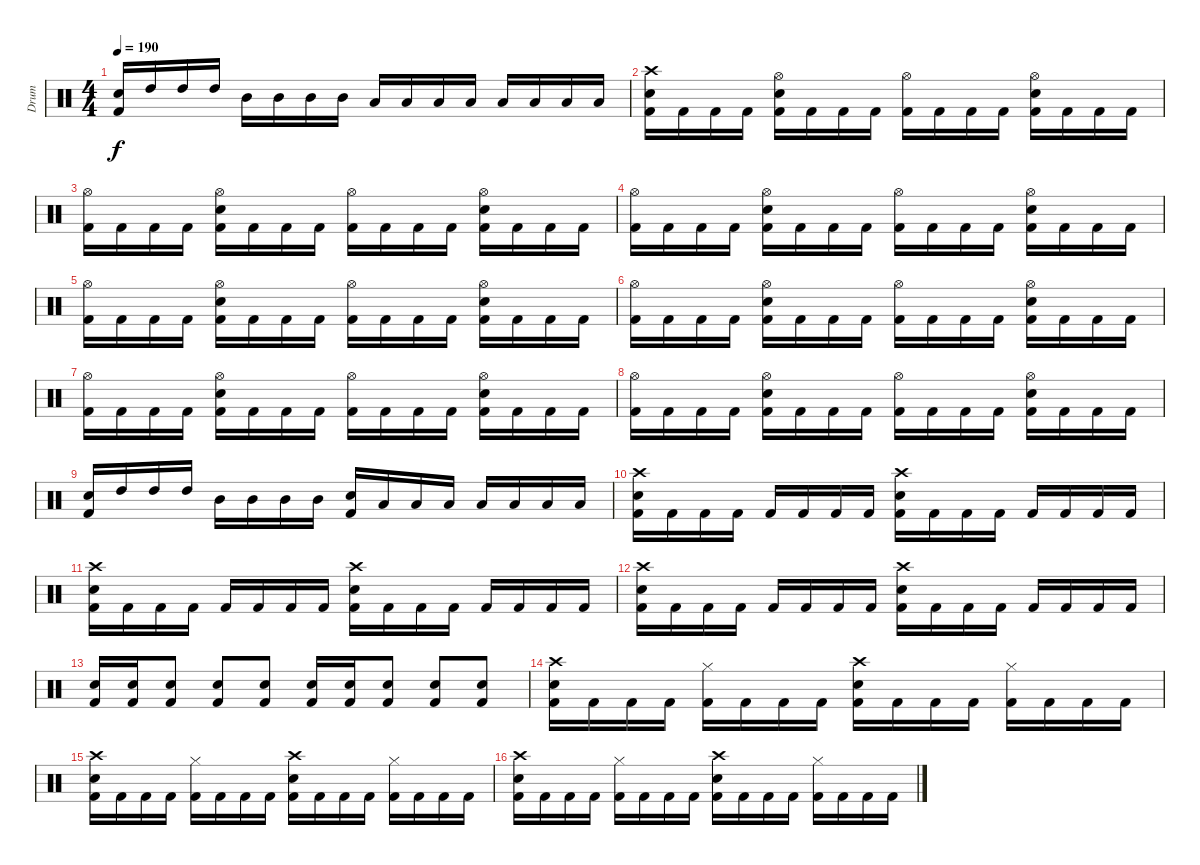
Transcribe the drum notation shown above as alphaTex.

\track ("Drum" "Drum") {instrument percussion}
\staff {score}
\articulation defaults
\ts (4 4)
\tempo 190
\clef neutral
\ks c
("Snare (hit) 2" "Kick (hit) 2").16{dy f} "High Tom (hit)".16 "High Tom (hit)".16 "High Tom (hit)".16 "Mid Tom (hit)".16 "Mid Tom (hit)".16 "Mid Tom (hit)".16 "Mid Tom (hit)".16 "Low Tom (hit)".16 "Low Tom (hit)".16 "Low Tom (hit)".16 "Low Tom (hit)".16 "Low Floor Tom (hit)".16 "Low Floor Tom (hit)".16 "Low Floor Tom (hit)".16 "Low Floor Tom (hit)".16 |
("Crash high (hit)" "Snare (hit) 2" "Kick (hit) 2").16 "Kick (hit) 2".16 "Kick (hit) 2".16 "Kick (hit) 2".16 ("Hi-Hat (open)" "Snare (hit) 2" "Kick (hit) 2").16 "Kick (hit) 2".16 "Kick (hit) 2".16 "Kick (hit) 2".16 ("Hi-Hat (open)" "Kick (hit) 2").16 "Kick (hit) 2".16 "Kick (hit) 2".16 "Kick (hit) 2".16 ("Hi-Hat (open)" "Snare (hit) 2" "Kick (hit) 2").16 "Kick (hit) 2".16 "Kick (hit) 2".16 "Kick (hit) 2".16 |
("Hi-Hat (open)" "Kick (hit) 2").16 "Kick (hit) 2".16 "Kick (hit) 2".16 "Kick (hit) 2".16 ("Hi-Hat (open)" "Snare (hit) 2" "Kick (hit) 2").16 "Kick (hit) 2".16 "Kick (hit) 2".16 "Kick (hit) 2".16 ("Hi-Hat (open)" "Kick (hit) 2").16 "Kick (hit) 2".16 "Kick (hit) 2".16 "Kick (hit) 2".16 ("Hi-Hat (open)" "Snare (hit) 2" "Kick (hit) 2").16 "Kick (hit) 2".16 "Kick (hit) 2".16 "Kick (hit) 2".16 |
("Hi-Hat (open)" "Kick (hit) 2").16 "Kick (hit) 2".16 "Kick (hit) 2".16 "Kick (hit) 2".16 ("Hi-Hat (open)" "Snare (hit) 2" "Kick (hit) 2").16 "Kick (hit) 2".16 "Kick (hit) 2".16 "Kick (hit) 2".16 ("Hi-Hat (open)" "Kick (hit) 2").16 "Kick (hit) 2".16 "Kick (hit) 2".16 "Kick (hit) 2".16 ("Hi-Hat (open)" "Snare (hit) 2" "Kick (hit) 2").16 "Kick (hit) 2".16 "Kick (hit) 2".16 "Kick (hit) 2".16 |
("Hi-Hat (open)" "Kick (hit) 2").16 "Kick (hit) 2".16 "Kick (hit) 2".16 "Kick (hit) 2".16 ("Hi-Hat (open)" "Snare (hit) 2" "Kick (hit) 2").16 "Kick (hit) 2".16 "Kick (hit) 2".16 "Kick (hit) 2".16 ("Hi-Hat (open)" "Kick (hit) 2").16 "Kick (hit) 2".16 "Kick (hit) 2".16 "Kick (hit) 2".16 ("Hi-Hat (open)" "Snare (hit) 2" "Kick (hit) 2").16 "Kick (hit) 2".16 "Kick (hit) 2".16 "Kick (hit) 2".16 |
("Hi-Hat (open)" "Kick (hit) 2").16 "Kick (hit) 2".16 "Kick (hit) 2".16 "Kick (hit) 2".16 ("Hi-Hat (open)" "Snare (hit) 2" "Kick (hit) 2").16 "Kick (hit) 2".16 "Kick (hit) 2".16 "Kick (hit) 2".16 ("Hi-Hat (open)" "Kick (hit) 2").16 "Kick (hit) 2".16 "Kick (hit) 2".16 "Kick (hit) 2".16 ("Hi-Hat (open)" "Snare (hit) 2" "Kick (hit) 2").16 "Kick (hit) 2".16 "Kick (hit) 2".16 "Kick (hit) 2".16 |
("Hi-Hat (open)" "Kick (hit) 2").16 "Kick (hit) 2".16 "Kick (hit) 2".16 "Kick (hit) 2".16 ("Hi-Hat (open)" "Snare (hit) 2" "Kick (hit) 2").16 "Kick (hit) 2".16 "Kick (hit) 2".16 "Kick (hit) 2".16 ("Hi-Hat (open)" "Kick (hit) 2").16 "Kick (hit) 2".16 "Kick (hit) 2".16 "Kick (hit) 2".16 ("Hi-Hat (open)" "Snare (hit) 2" "Kick (hit) 2").16 "Kick (hit) 2".16 "Kick (hit) 2".16 "Kick (hit) 2".16 |
("Hi-Hat (open)" "Kick (hit) 2").16 "Kick (hit) 2".16 "Kick (hit) 2".16 "Kick (hit) 2".16 ("Hi-Hat (open)" "Snare (hit) 2" "Kick (hit) 2").16 "Kick (hit) 2".16 "Kick (hit) 2".16 "Kick (hit) 2".16 ("Hi-Hat (open)" "Kick (hit) 2").16 "Kick (hit) 2".16 "Kick (hit) 2".16 "Kick (hit) 2".16 ("Hi-Hat (open)" "Snare (hit) 2" "Kick (hit) 2").16 "Kick (hit) 2".16 "Kick (hit) 2".16 "Kick (hit) 2".16 |
("Snare (hit) 2" "Kick (hit) 2").16 "High Tom (hit)".16 "High Tom (hit)".16 "High Tom (hit)".16 "Mid Tom (hit)".16 "Mid Tom (hit)".16 "Mid Tom (hit)".16 "Mid Tom (hit)".16 ("Snare (hit) 2" "Kick (hit) 2").16 "Low Tom (hit)".16 "Low Tom (hit)".16 "Low Tom (hit)".16 "Low Floor Tom (hit)".16 "Low Floor Tom (hit)".16 "Low Floor Tom (hit)".16 "Low Floor Tom (hit)".16 |
("Crash high (hit)" "Snare (hit) 2" "Kick (hit) 2").16 "Kick (hit) 2".16 "Kick (hit) 2".16 "Kick (hit) 2".16 "Kick (hit) 2".16 "Kick (hit) 2".16 "Kick (hit) 2".16 "Kick (hit) 2".16 ("Crash high (hit)" "Snare (hit) 2" "Kick (hit) 2").16 "Kick (hit) 2".16 "Kick (hit) 2".16 "Kick (hit) 2".16 "Kick (hit) 2".16 "Kick (hit) 2".16 "Kick (hit) 2".16 "Kick (hit) 2".16 |
("Crash high (hit)" "Snare (hit) 2" "Kick (hit) 2").16 "Kick (hit) 2".16 "Kick (hit) 2".16 "Kick (hit) 2".16 "Kick (hit) 2".16 "Kick (hit) 2".16 "Kick (hit) 2".16 "Kick (hit) 2".16 ("Crash high (hit)" "Snare (hit) 2" "Kick (hit) 2").16 "Kick (hit) 2".16 "Kick (hit) 2".16 "Kick (hit) 2".16 "Kick (hit) 2".16 "Kick (hit) 2".16 "Kick (hit) 2".16 "Kick (hit) 2".16 |
("Crash high (hit)" "Snare (hit) 2" "Kick (hit) 2").16 "Kick (hit) 2".16 "Kick (hit) 2".16 "Kick (hit) 2".16 "Kick (hit) 2".16 "Kick (hit) 2".16 "Kick (hit) 2".16 "Kick (hit) 2".16 ("Crash high (hit)" "Snare (hit) 2" "Kick (hit) 2").16 "Kick (hit) 2".16 "Kick (hit) 2".16 "Kick (hit) 2".16 "Kick (hit) 2".16 "Kick (hit) 2".16 "Kick (hit) 2".16 "Kick (hit) 2".16 |
("Snare (hit) 2" "Kick (hit) 2").16 ("Snare (hit) 2" "Kick (hit) 2").16 ("Snare (hit) 2" "Kick (hit) 2").8 ("Snare (hit) 2" "Kick (hit) 2").8 ("Snare (hit) 2" "Kick (hit) 2").8 ("Snare (hit) 2" "Kick (hit) 2").16 ("Snare (hit) 2" "Kick (hit) 2").16 ("Snare (hit) 2" "Kick (hit) 2").8 ("Snare (hit) 2" "Kick (hit) 2").8 ("Snare (hit) 2" "Kick (hit) 2").8 |
("Crash high (hit)" "Snare (hit) 2" "Kick (hit) 2").16 "Kick (hit) 2".16 "Kick (hit) 2".16 "Kick (hit) 2".16 ("Hi-Hat (closed)" "Kick (hit) 2").16 "Kick (hit) 2".16 "Kick (hit) 2".16 "Kick (hit) 2".16 ("Crash high (hit)" "Snare (hit) 2" "Kick (hit) 2").16 "Kick (hit) 2".16 "Kick (hit) 2".16 "Kick (hit) 2".16 ("Hi-Hat (closed)" "Kick (hit) 2").16 "Kick (hit) 2".16 "Kick (hit) 2".16 "Kick (hit) 2".16 |
("Crash high (hit)" "Snare (hit) 2" "Kick (hit) 2").16 "Kick (hit) 2".16 "Kick (hit) 2".16 "Kick (hit) 2".16 ("Hi-Hat (closed)" "Kick (hit) 2").16 "Kick (hit) 2".16 "Kick (hit) 2".16 "Kick (hit) 2".16 ("Crash high (hit)" "Snare (hit) 2" "Kick (hit) 2").16 "Kick (hit) 2".16 "Kick (hit) 2".16 "Kick (hit) 2".16 ("Hi-Hat (closed)" "Kick (hit) 2").16 "Kick (hit) 2".16 "Kick (hit) 2".16 "Kick (hit) 2".16 |
("Crash high (hit)" "Snare (hit) 2" "Kick (hit) 2").16 "Kick (hit) 2".16 "Kick (hit) 2".16 "Kick (hit) 2".16 ("Hi-Hat (closed)" "Kick (hit) 2").16 "Kick (hit) 2".16 "Kick (hit) 2".16 "Kick (hit) 2".16 ("Crash high (hit)" "Snare (hit) 2" "Kick (hit) 2").16 "Kick (hit) 2".16 "Kick (hit) 2".16 "Kick (hit) 2".16 ("Hi-Hat (closed)" "Kick (hit) 2").16 "Kick (hit) 2".16 "Kick (hit) 2".16 "Kick (hit) 2".16
